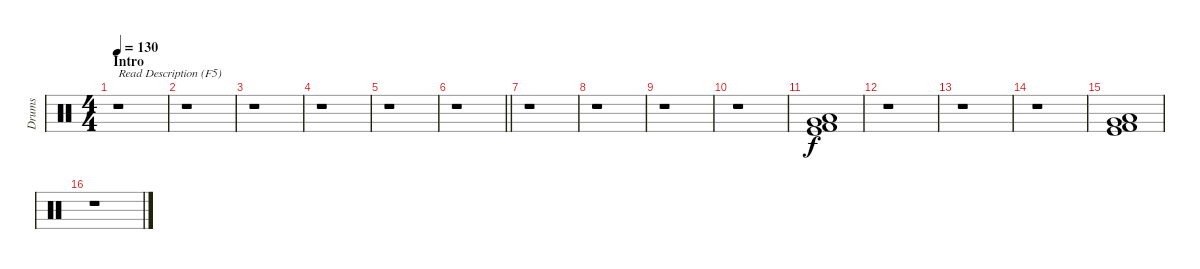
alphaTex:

\track ("Drums" "Drums") {instrument percussion}
\staff {score}
\articulation defaults
\ts (4 4)
\section ("" "Intro")
\tempo 130
\clef neutral
\ks c
r.1{txt "Read Description (F5)" dy f} |
r.1 |
r.1 |
r.1 |
r.1 |
\barLineRight lightlight
r.1 |
r.1 |
r.1 |
r.1 |
r.1 |
("Very Low Tom (hit)" "Low Floor Tom (hit)" "Kick (hit) 2" "Kick (hit)").1 |
r.1 |
r.1 |
r.1 |
("Very Low Tom (hit)" "Low Floor Tom (hit)" "Kick (hit) 2" "Kick (hit)").1 |
r.1
